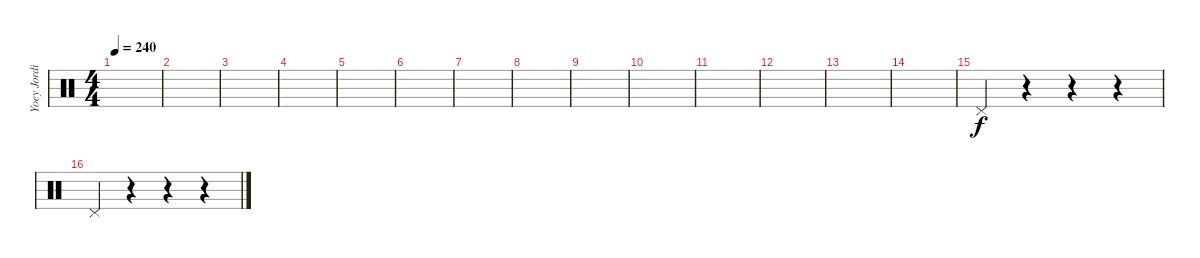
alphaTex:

\track ("Yoey Jordison" "Yoey Jordi") {instrument percussion}
\staff {score}
\articulation defaults
\ts (4 4)
\tempo 240
\clef neutral
\ks c
|
|
|
|
|
|
|
|
|
|
|
|
|
|
"Pedal Hi-Hat (hit)".4 r.4 r.4 r.4 |
"Pedal Hi-Hat (hit)".4 r.4 r.4 r.4
